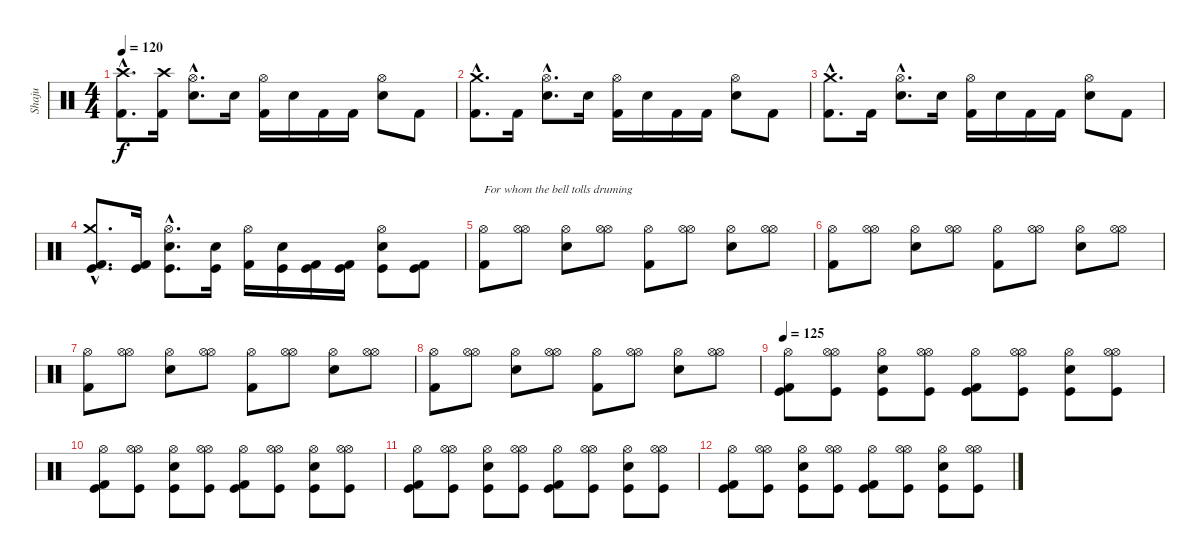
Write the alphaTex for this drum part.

\track ("Shaju" "Shaju") {instrument percussion}
\staff {score}
\articulation defaults
\ts (4 4)
\tempo 120
\clef neutral
\ks c
("Crash high (hit)"{hac} "Kick (hit) 2"{hac}).8{d dy f} ("Crash high (hit)" "Kick (hit) 2").16 ("Hi-Hat (open)"{hac} "Electric Snare (hit)"{hac}).8{d} "Electric Snare (hit)".16 ("Hi-Hat (open)" "Kick (hit) 2").16 "Electric Snare (hit)".16 "Kick (hit) 2".16 "Kick (hit) 2".16 ("Hi-Hat (open)" "Electric Snare (hit)").8 "Kick (hit) 2".8 |
("Crash medium (hit)"{hac} "Kick (hit) 2"{hac}).8{d} "Kick (hit) 2".16 ("Hi-Hat (open)"{hac} "Electric Snare (hit)"{hac}).8{d} "Electric Snare (hit)".16 ("Hi-Hat (open)" "Kick (hit) 2").16 "Electric Snare (hit)".16 "Kick (hit) 2".16 "Kick (hit) 2".16 ("Hi-Hat (open)" "Electric Snare (hit)").8 "Kick (hit) 2".8 |
("Crash medium (hit)"{hac} "Kick (hit) 2"{hac}).8{d} "Kick (hit) 2".16 ("Hi-Hat (open)"{hac} "Electric Snare (hit)"{hac}).8{d} "Electric Snare (hit)".16 ("Hi-Hat (open)" "Kick (hit) 2").16 "Electric Snare (hit)".16 "Kick (hit) 2".16 "Kick (hit) 2".16 ("Hi-Hat (open)" "Electric Snare (hit)").8 "Kick (hit) 2".8 |
("Crash medium (hit)"{hac} "Kick (hit) 2"{hac} "Kick (hit)"{hac}).8{d} ("Kick (hit) 2" "Kick (hit)").16 ("Hi-Hat (open)"{hac} "Electric Snare (hit)"{hac} "Kick (hit)"{hac}).8{d} ("Electric Snare (hit)" "Kick (hit)").16 ("Hi-Hat (open)" "Kick (hit) 2").16 ("Electric Snare (hit)" "Kick (hit)").16 ("Kick (hit) 2" "Kick (hit)").16 ("Kick (hit) 2" "Kick (hit)").16 ("Hi-Hat (open)" "Electric Snare (hit)" "Kick (hit)").8 ("Kick (hit) 2" "Kick (hit)").8 |
("Kick (hit) 2" "Hi-Hat (open)").8{txt "For whom the bell tolls druming"} ("Hi-Hat (open)" "Hi-Hat (open)").8 ("Hi-Hat (open)" "Electric Snare (hit)").8 ("Hi-Hat (open)" "Hi-Hat (open)").8 ("Hi-Hat (open)" "Kick (hit) 2").8 ("Hi-Hat (open)" "Hi-Hat (open)").8 ("Hi-Hat (open)" "Electric Snare (hit)").8 ("Hi-Hat (open)" "Hi-Hat (open)").8 |
("Kick (hit) 2" "Hi-Hat (open)").8 ("Hi-Hat (open)" "Hi-Hat (open)").8 ("Hi-Hat (open)" "Electric Snare (hit)").8 ("Hi-Hat (open)" "Hi-Hat (open)").8 ("Hi-Hat (open)" "Kick (hit) 2").8 ("Hi-Hat (open)" "Hi-Hat (open)").8 ("Hi-Hat (open)" "Electric Snare (hit)").8 ("Hi-Hat (open)" "Hi-Hat (open)").8 |
("Kick (hit) 2" "Hi-Hat (open)").8 ("Hi-Hat (open)" "Hi-Hat (open)").8 ("Hi-Hat (open)" "Electric Snare (hit)").8 ("Hi-Hat (open)" "Hi-Hat (open)").8 ("Hi-Hat (open)" "Kick (hit) 2").8 ("Hi-Hat (open)" "Hi-Hat (open)").8 ("Hi-Hat (open)" "Electric Snare (hit)").8 ("Hi-Hat (open)" "Hi-Hat (open)").8 |
("Kick (hit) 2" "Hi-Hat (open)").8 ("Hi-Hat (open)" "Hi-Hat (open)").8 ("Hi-Hat (open)" "Electric Snare (hit)").8 ("Hi-Hat (open)" "Hi-Hat (open)").8 ("Hi-Hat (open)" "Kick (hit) 2").8 ("Hi-Hat (open)" "Hi-Hat (open)").8 ("Hi-Hat (open)" "Electric Snare (hit)").8 ("Hi-Hat (open)" "Hi-Hat (open)").8 |
\tempo 125
("Kick (hit) 2" "Hi-Hat (open)" "Kick (hit)").8 ("Hi-Hat (open)" "Hi-Hat (open)" "Kick (hit)").8 ("Hi-Hat (open)" "Electric Snare (hit)" "Kick (hit)").8 ("Hi-Hat (open)" "Hi-Hat (open)" "Kick (hit)").8 ("Hi-Hat (open)" "Kick (hit) 2" "Kick (hit)").8 ("Hi-Hat (open)" "Hi-Hat (open)" "Kick (hit)").8 ("Hi-Hat (open)" "Electric Snare (hit)" "Kick (hit)").8 ("Hi-Hat (open)" "Hi-Hat (open)" "Kick (hit)").8 |
("Kick (hit) 2" "Hi-Hat (open)" "Kick (hit)").8 ("Hi-Hat (open)" "Hi-Hat (open)" "Kick (hit)").8 ("Hi-Hat (open)" "Electric Snare (hit)" "Kick (hit)").8 ("Hi-Hat (open)" "Hi-Hat (open)" "Kick (hit)").8 ("Hi-Hat (open)" "Kick (hit) 2" "Kick (hit)").8 ("Hi-Hat (open)" "Hi-Hat (open)" "Kick (hit)").8 ("Hi-Hat (open)" "Electric Snare (hit)" "Kick (hit)").8 ("Hi-Hat (open)" "Hi-Hat (open)" "Kick (hit)").8 |
("Kick (hit) 2" "Hi-Hat (open)" "Kick (hit)").8 ("Hi-Hat (open)" "Hi-Hat (open)" "Kick (hit)").8 ("Hi-Hat (open)" "Electric Snare (hit)" "Kick (hit)").8 ("Hi-Hat (open)" "Hi-Hat (open)" "Kick (hit)").8 ("Hi-Hat (open)" "Kick (hit) 2" "Kick (hit)").8 ("Hi-Hat (open)" "Hi-Hat (open)" "Kick (hit)").8 ("Hi-Hat (open)" "Electric Snare (hit)" "Kick (hit)").8 ("Hi-Hat (open)" "Hi-Hat (open)" "Kick (hit)").8 |
("Kick (hit) 2" "Hi-Hat (open)" "Kick (hit)").8 ("Hi-Hat (open)" "Hi-Hat (open)" "Kick (hit)").8 ("Hi-Hat (open)" "Electric Snare (hit)" "Kick (hit)").8 ("Hi-Hat (open)" "Hi-Hat (open)" "Kick (hit)").8 ("Hi-Hat (open)" "Kick (hit) 2" "Kick (hit)").8 ("Hi-Hat (open)" "Hi-Hat (open)" "Kick (hit)").8 ("Hi-Hat (open)" "Electric Snare (hit)" "Kick (hit)").8 ("Hi-Hat (open)" "Hi-Hat (open)" "Kick (hit)").8
